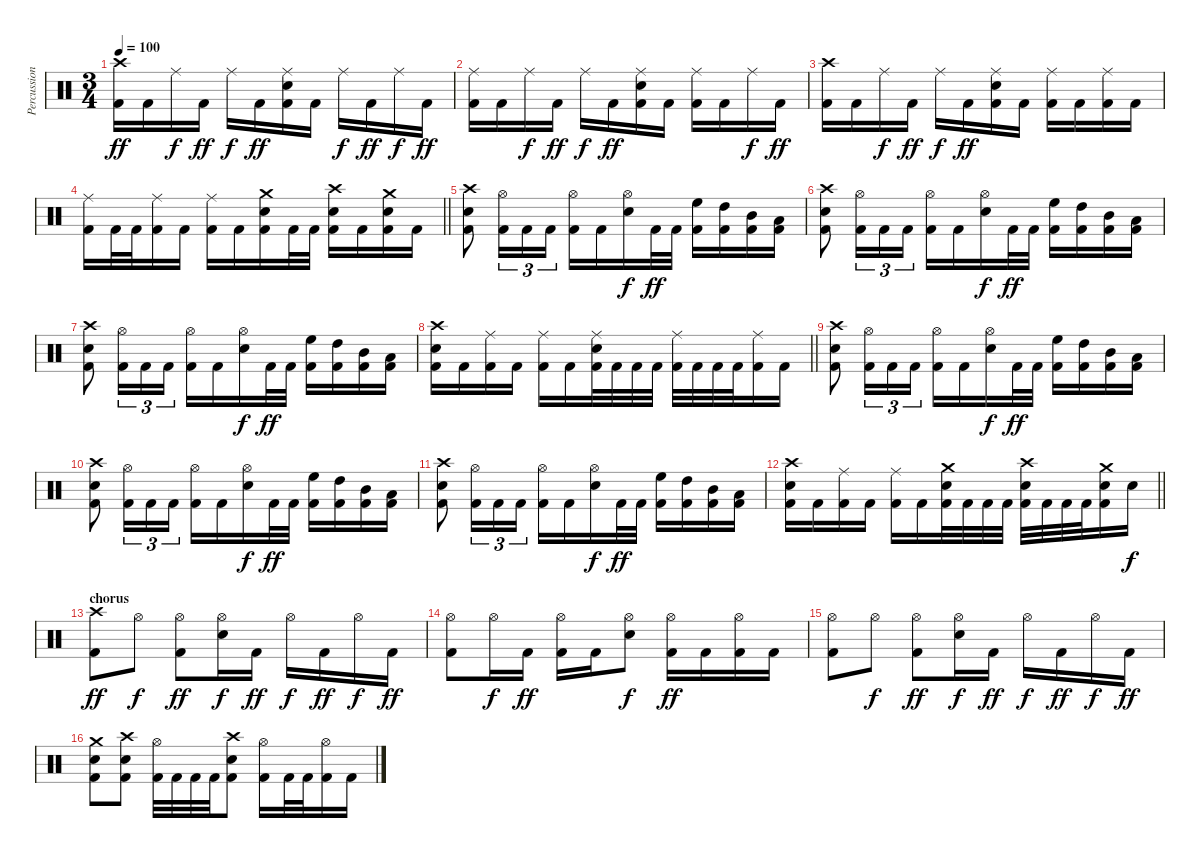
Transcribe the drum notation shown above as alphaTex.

\track ("Percussion" "Percussion") {instrument percussion}
\staff {score}
\articulation defaults
\ts (3 4)
\tempo 100
\clef neutral
\ks c
("Crash high (hit)" "Kick (hit) 2").16{dy ff} "Kick (hit) 2".16 "Ride (middle)".16{dy f} "Kick (hit) 2".16{dy ff} "Ride (middle)".16{dy f} "Kick (hit) 2".16{dy ff} ("Ride (middle)" "Snare (hit) 2" "Kick (hit) 2").16 "Kick (hit) 2".16 "Ride (middle)".16{dy f} "Kick (hit) 2".16{dy ff} "Ride (middle)".16{dy f} "Kick (hit) 2".16{dy ff} |
("Ride (middle)" "Kick (hit) 2").16 "Kick (hit) 2".16 "Ride (middle)".16{dy f} "Kick (hit) 2".16{dy ff} "Ride (middle)".16{dy f} "Kick (hit) 2".16{dy ff} ("Ride (middle)" "Snare (hit) 2" "Kick (hit) 2").16 "Kick (hit) 2".16 ("Ride (middle)" "Kick (hit) 2").16 "Kick (hit) 2".16 "Ride (middle)".16{dy f} "Kick (hit) 2".16{dy ff} |
("Crash high (hit)" "Kick (hit) 2").16 "Kick (hit) 2".16 "Ride (middle)".16{dy f} "Kick (hit) 2".16{dy ff} "Ride (middle)".16{dy f} "Kick (hit) 2".16{dy ff} ("Ride (middle)" "Snare (hit) 2" "Kick (hit) 2").16 "Kick (hit) 2".16 ("Ride (middle)" "Kick (hit) 2").16 "Kick (hit) 2".16 ("Ride (middle)" "Kick (hit) 2").16 "Kick (hit) 2".16 |
\barLineRight lightlight
("Ride (middle)" "Kick (hit) 2").16 "Kick (hit) 2".32 "Kick (hit) 2".32 ("Ride (middle)" "Kick (hit) 2").16 "Kick (hit) 2".16 ("Ride (middle)" "Kick (hit) 2").16 "Kick (hit) 2".16 ("Crash medium (hit)" "Snare (hit) 2" "Kick (hit) 2").16 "Kick (hit) 2".32 "Kick (hit) 2".32 ("Crash high (hit)" "Snare (hit) 2" "Kick (hit) 2").16 "Kick (hit) 2".16 ("Crash medium (hit)" "Snare (hit) 2" "Kick (hit) 2").16 "Kick (hit) 2".16 |
\section ("" "")
("Crash high (hit)" "Snare (hit) 2" "Kick (hit) 2").8 ("Hi-Hat (open)" "Kick (hit) 2").16{tu (3 2)} "Kick (hit) 2".16{tu (3 2)} "Kick (hit) 2".16{tu (3 2)} ("Hi-Hat (open)" "Kick (hit) 2").16 "Kick (hit) 2".16 ("Hi-Hat (open)" "Snare (hit) 2").16{dy f} "Kick (hit) 2".32{dy ff} "Kick (hit) 2".32 ("High Floor Tom (hit)" "Kick (hit) 2").16 ("High Tom (hit)" "Kick (hit) 2").16 ("Mid Tom (hit)" "Kick (hit) 2").16 ("Low Tom (hit)" "Kick (hit) 2").16 |
("Crash high (hit)" "Snare (hit) 2" "Kick (hit) 2").8 ("Hi-Hat (open)" "Kick (hit) 2").16{tu (3 2)} "Kick (hit) 2".16{tu (3 2)} "Kick (hit) 2".16{tu (3 2)} ("Hi-Hat (open)" "Kick (hit) 2").16 "Kick (hit) 2".16 ("Hi-Hat (open)" "Snare (hit) 2").16{dy f} "Kick (hit) 2".32{dy ff} "Kick (hit) 2".32 ("High Floor Tom (hit)" "Kick (hit) 2").16 ("High Tom (hit)" "Kick (hit) 2").16 ("Mid Tom (hit)" "Kick (hit) 2").16 ("Low Tom (hit)" "Kick (hit) 2").16 |
("Crash high (hit)" "Snare (hit) 2" "Kick (hit) 2").8 ("Hi-Hat (open)" "Kick (hit) 2").16{tu (3 2)} "Kick (hit) 2".16{tu (3 2)} "Kick (hit) 2".16{tu (3 2)} ("Hi-Hat (open)" "Kick (hit) 2").16 "Kick (hit) 2".16 ("Hi-Hat (open)" "Snare (hit) 2").16{dy f} "Kick (hit) 2".32{dy ff} "Kick (hit) 2".32 ("High Floor Tom (hit)" "Kick (hit) 2").16 ("High Tom (hit)" "Kick (hit) 2").16 ("Mid Tom (hit)" "Kick (hit) 2").16 ("Low Tom (hit)" "Kick (hit) 2").16 |
\barLineRight lightlight
("Crash high (hit)" "Snare (hit) 2" "Kick (hit) 2").16 "Kick (hit) 2".16 ("Ride (middle)" "Kick (hit) 2").16 "Kick (hit) 2".16 ("Ride (middle)" "Kick (hit) 2").16 "Kick (hit) 2".16 ("Ride (middle)" "Snare (hit) 2" "Kick (hit) 2").32 "Kick (hit) 2".32 "Kick (hit) 2".32 "Kick (hit) 2".32 ("Ride (middle)" "Kick (hit) 2").32 "Kick (hit) 2".32 "Kick (hit) 2".32 "Kick (hit) 2".32 ("Ride (middle)" "Kick (hit) 2").16 "Kick (hit) 2".16 |
("Crash high (hit)" "Snare (hit) 2" "Kick (hit) 2").8 ("Hi-Hat (open)" "Kick (hit) 2").16{tu (3 2)} "Kick (hit) 2".16{tu (3 2)} "Kick (hit) 2".16{tu (3 2)} ("Hi-Hat (open)" "Kick (hit) 2").16 "Kick (hit) 2".16 ("Hi-Hat (open)" "Snare (hit) 2").16{dy f} "Kick (hit) 2".32{dy ff} "Kick (hit) 2".32 ("High Floor Tom (hit)" "Kick (hit) 2").16 ("High Tom (hit)" "Kick (hit) 2").16 ("Mid Tom (hit)" "Kick (hit) 2").16 ("Low Tom (hit)" "Kick (hit) 2").16 |
("Crash high (hit)" "Snare (hit) 2" "Kick (hit) 2").8 ("Hi-Hat (open)" "Kick (hit) 2").16{tu (3 2)} "Kick (hit) 2".16{tu (3 2)} "Kick (hit) 2".16{tu (3 2)} ("Hi-Hat (open)" "Kick (hit) 2").16 "Kick (hit) 2".16 ("Hi-Hat (open)" "Snare (hit) 2").16{dy f} "Kick (hit) 2".32{dy ff} "Kick (hit) 2".32 ("High Floor Tom (hit)" "Kick (hit) 2").16 ("High Tom (hit)" "Kick (hit) 2").16 ("Mid Tom (hit)" "Kick (hit) 2").16 ("Low Tom (hit)" "Kick (hit) 2").16 |
("Crash high (hit)" "Snare (hit) 2" "Kick (hit) 2").8 ("Hi-Hat (open)" "Kick (hit) 2").16{tu (3 2)} "Kick (hit) 2".16{tu (3 2)} "Kick (hit) 2".16{tu (3 2)} ("Hi-Hat (open)" "Kick (hit) 2").16 "Kick (hit) 2".16 ("Hi-Hat (open)" "Snare (hit) 2").16{dy f} "Kick (hit) 2".32{dy ff} "Kick (hit) 2".32 ("High Floor Tom (hit)" "Kick (hit) 2").16 ("High Tom (hit)" "Kick (hit) 2").16 ("Mid Tom (hit)" "Kick (hit) 2").16 ("Low Tom (hit)" "Kick (hit) 2").16 |
\barLineRight lightlight
("Crash high (hit)" "Snare (hit) 2" "Kick (hit) 2").16 "Kick (hit) 2".16 ("Ride (middle)" "Kick (hit) 2").16 "Kick (hit) 2".16 ("Ride (middle)" "Kick (hit) 2").16 "Kick (hit) 2".16 ("Crash medium (hit)" "Snare (hit) 2" "Kick (hit) 2").32 "Kick (hit) 2".32 "Kick (hit) 2".32 "Kick (hit) 2".32 ("Crash high (hit)" "Snare (hit) 2" "Kick (hit) 2").32 "Kick (hit) 2".32 "Kick (hit) 2".32 "Kick (hit) 2".32 ("Crash medium (hit)" "Snare (hit) 2" "Kick (hit) 2").16 "Snare (hit) 2".16{dy f} |
\section ("" "chorus")
("Crash high (hit)" "Kick (hit) 2").8{dy ff} "Hi-Hat (open)".8{dy f} ("Hi-Hat (open)" "Kick (hit) 2").8{dy ff} ("Hi-Hat (open)" "Snare (hit) 2").16{dy f} "Kick (hit) 2".16{dy ff} "Hi-Hat (open)".16{dy f} "Kick (hit) 2".16{dy ff} "Hi-Hat (open)".16{dy f} "Kick (hit) 2".16{dy ff} |
("Hi-Hat (open)" "Kick (hit) 2").8 "Hi-Hat (open)".16{dy f} "Kick (hit) 2".16{dy ff} ("Hi-Hat (open)" "Kick (hit) 2").16 "Kick (hit) 2".16 ("Hi-Hat (open)" "Snare (hit) 2").8{dy f} ("Hi-Hat (open)" "Kick (hit) 2").16{dy ff} "Kick (hit) 2".16 ("Hi-Hat (open)" "Kick (hit) 2").16 "Kick (hit) 2".16 |
("Hi-Hat (open)" "Kick (hit) 2").8 "Hi-Hat (open)".8{dy f} ("Hi-Hat (open)" "Kick (hit) 2").8{dy ff} ("Hi-Hat (open)" "Snare (hit) 2").16{dy f} "Kick (hit) 2".16{dy ff} "Hi-Hat (open)".16{dy f} "Kick (hit) 2".16{dy ff} "Hi-Hat (open)".16{dy f} "Kick (hit) 2".16{dy ff} |
("Crash medium (hit)" "Snare (hit) 2" "Kick (hit) 2").8 ("Crash high (hit)" "Snare (hit) 2" "Kick (hit) 2").8 ("Hi-Hat (open)" "Kick (hit) 2").32 "Kick (hit) 2".32 "Kick (hit) 2".32 "Kick (hit) 2".32 ("Crash high (hit)" "Snare (hit) 2" "Kick (hit) 2").8 ("Hi-Hat (open)" "Kick (hit) 2").16 "Kick (hit) 2".32 "Kick (hit) 2".32 ("Hi-Hat (open)" "Kick (hit) 2").16 "Kick (hit) 2".16
